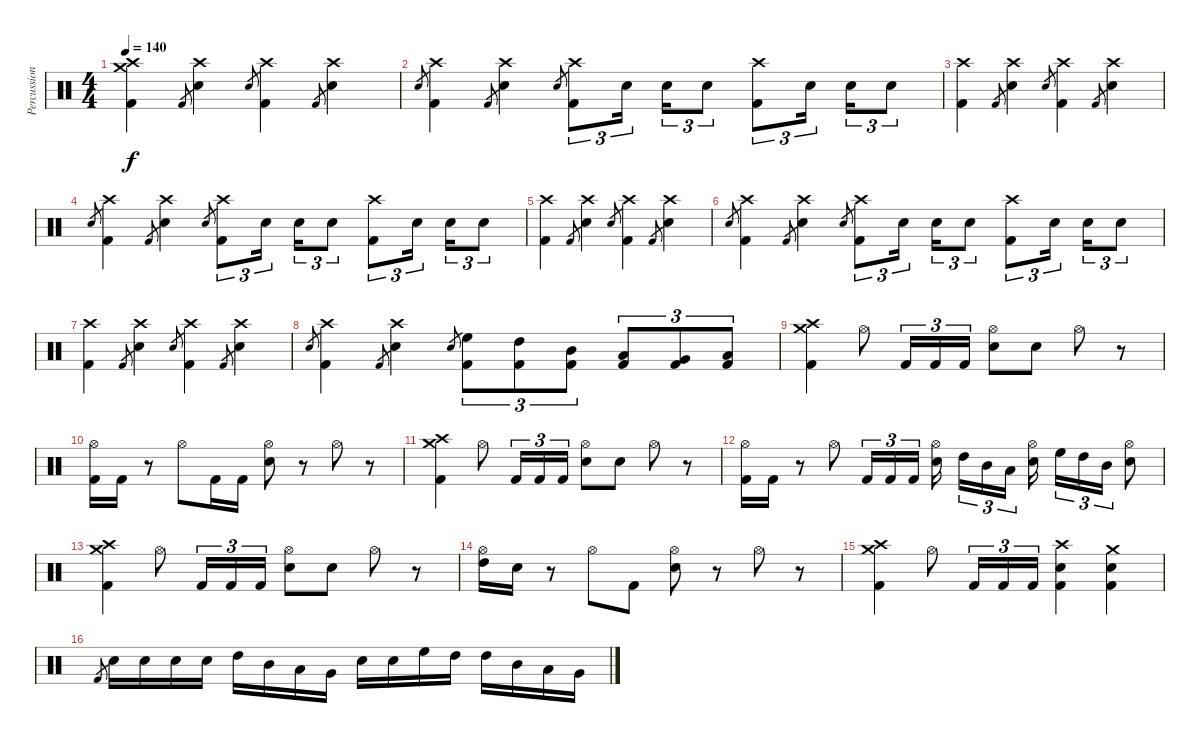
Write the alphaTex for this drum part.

\track ("Percussion" "Percussion") {instrument percussion}
\staff {score}
\articulation defaults
\ts (4 4)
\tempo 140
\clef neutral
\ks c
("Crash medium (hit)" "Crash high (hit)" "Kick (hit) 2").4{dy f} "Kick (hit) 2".8{gr} ("Crash high (hit)" "Electric Snare (hit)").4 "Electric Snare (hit)".8{gr} ("Crash high (hit)" "Kick (hit) 2").4 "Kick (hit) 2".8{gr} ("Crash high (hit)" "Electric Snare (hit)").4 |
"Electric Snare (hit)".8{gr} ("Crash high (hit)" "Kick (hit) 2").4 "Kick (hit) 2".8{gr} ("Crash high (hit)" "Electric Snare (hit)").4 "Electric Snare (hit)".8{gr} ("Crash high (hit)" "Kick (hit) 2").8{tu (3 2)} "Electric Snare (hit)".16{tu (3 2) beam splitsecondary} "Electric Snare (hit)".16{tu (3 2)} "Electric Snare (hit)".8{tu (3 2)} ("Crash high (hit)" "Kick (hit) 2").8{tu (3 2)} "Electric Snare (hit)".16{tu (3 2) beam splitsecondary} "Electric Snare (hit)".16{tu (3 2)} "Electric Snare (hit)".8{tu (3 2)} |
("Crash high (hit)" "Kick (hit) 2").4 "Kick (hit) 2".8{gr} ("Crash high (hit)" "Electric Snare (hit)").4 "Electric Snare (hit)".8{gr} ("Crash high (hit)" "Kick (hit) 2").4 "Kick (hit) 2".8{gr} ("Crash high (hit)" "Electric Snare (hit)").4 |
"Electric Snare (hit)".8{gr} ("Crash high (hit)" "Kick (hit) 2").4 "Kick (hit) 2".8{gr} ("Crash high (hit)" "Electric Snare (hit)").4 "Electric Snare (hit)".8{gr} ("Crash high (hit)" "Kick (hit) 2").8{tu (3 2)} "Electric Snare (hit)".16{tu (3 2) beam splitsecondary} "Electric Snare (hit)".16{tu (3 2)} "Electric Snare (hit)".8{tu (3 2)} ("Crash high (hit)" "Kick (hit) 2").8{tu (3 2)} "Electric Snare (hit)".16{tu (3 2) beam splitsecondary} "Electric Snare (hit)".16{tu (3 2)} "Electric Snare (hit)".8{tu (3 2)} |
("Crash high (hit)" "Kick (hit) 2").4 "Kick (hit) 2".8{gr} ("Crash high (hit)" "Electric Snare (hit)").4 "Electric Snare (hit)".8{gr} ("Crash high (hit)" "Kick (hit) 2").4 "Kick (hit) 2".8{gr} ("Crash high (hit)" "Electric Snare (hit)").4 |
"Electric Snare (hit)".8{gr} ("Crash high (hit)" "Kick (hit) 2").4 "Kick (hit) 2".8{gr} ("Crash high (hit)" "Electric Snare (hit)").4 "Electric Snare (hit)".8{gr} ("Crash high (hit)" "Kick (hit) 2").8{tu (3 2)} "Electric Snare (hit)".16{tu (3 2) beam splitsecondary} "Electric Snare (hit)".16{tu (3 2)} "Electric Snare (hit)".8{tu (3 2)} ("Crash high (hit)" "Kick (hit) 2").8{tu (3 2)} "Electric Snare (hit)".16{tu (3 2) beam splitsecondary} "Electric Snare (hit)".16{tu (3 2)} "Electric Snare (hit)".8{tu (3 2)} |
("Crash high (hit)" "Kick (hit) 2").4 "Kick (hit) 2".8{gr} ("Crash high (hit)" "Electric Snare (hit)").4 "Electric Snare (hit)".8{gr} ("Crash high (hit)" "Kick (hit) 2").4 "Kick (hit) 2".8{gr} ("Crash high (hit)" "Electric Snare (hit)").4 |
"Electric Snare (hit)".8{gr} ("Crash high (hit)" "Kick (hit) 2").4 "Kick (hit) 2".8{gr} ("Crash high (hit)" "Electric Snare (hit)").4 "Electric Snare (hit)".8{gr} ("High Floor Tom (hit)" "Kick (hit) 2").8{tu (3 2)} ("High Tom (hit)" "Kick (hit) 2").8{tu (3 2)} ("Mid Tom (hit)" "Kick (hit) 2").8{tu (3 2)} ("Low Tom (hit)" "Kick (hit) 2").8{tu (3 2)} ("Very Low Tom (hit)" "Kick (hit) 2").8{tu (3 2)} ("Low Floor Tom (hit)" "Kick (hit) 2").8{tu (3 2)} |
("Crash medium (hit)" "Crash high (hit)" "Kick (hit) 2").4 "Hi-Hat (open)".8 "Kick (hit) 2".16{tu (3 2)} "Kick (hit) 2".16{tu (3 2)} "Kick (hit) 2".16{tu (3 2)} ("Hi-Hat (open)" "Electric Snare (hit)").8 "Electric Snare (hit)".8 "Hi-Hat (open)".8 r.8 |
("Hi-Hat (open)" "Kick (hit) 2").16 "Kick (hit) 2".16 r.8 "Hi-Hat (open)".8 "Kick (hit) 2".16 "Kick (hit) 2".16 ("Hi-Hat (open)" "Electric Snare (hit)").8 r.8 "Hi-Hat (open)".8 r.8 |
("Crash medium (hit)" "Crash high (hit)" "Kick (hit) 2").4 "Hi-Hat (open)".8 "Kick (hit) 2".16{tu (3 2)} "Kick (hit) 2".16{tu (3 2)} "Kick (hit) 2".16{tu (3 2)} ("Hi-Hat (open)" "Electric Snare (hit)").8 "Electric Snare (hit)".8 "Hi-Hat (open)".8 r.8 |
("Hi-Hat (open)" "Kick (hit) 2").16 "Kick (hit) 2".16 r.8 "Hi-Hat (open)".8 "Kick (hit) 2".16{tu (3 2)} "Kick (hit) 2".16{tu (3 2)} "Kick (hit) 2".16{tu (3 2)} ("Hi-Hat (open)" "Electric Snare (hit)").16{beam splitsecondary} "High Tom (hit)".16{tu (3 2)} "Mid Tom (hit)".16{tu (3 2)} "Low Tom (hit)".16{tu (3 2) beam splitsecondary} ("Hi-Hat (open)" "Electric Snare (hit)").16 "High Floor Tom (hit)".16{tu (3 2)} "High Tom (hit)".16{tu (3 2)} "Mid Tom (hit)".16{tu (3 2)} ("Hi-Hat (open)" "Electric Snare (hit)").8 |
("Crash medium (hit)" "Crash high (hit)" "Kick (hit) 2").4 "Hi-Hat (open)".8 "Kick (hit) 2".16{tu (3 2)} "Kick (hit) 2".16{tu (3 2)} "Kick (hit) 2".16{tu (3 2)} ("Hi-Hat (open)" "Electric Snare (hit)").8 "Electric Snare (hit)".8 "Hi-Hat (open)".8 r.8 |
("Hi-Hat (open)" "High Tom (hit)").16 "Electric Snare (hit)".16 r.8 "Hi-Hat (open)".8 "Kick (hit) 2".8 ("Hi-Hat (open)" "Electric Snare (hit)").8 r.8 "Hi-Hat (open)".8 r.8 |
("Crash medium (hit)" "Crash high (hit)" "Kick (hit) 2").4 "Hi-Hat (open)".8 "Kick (hit) 2".16{tu (3 2)} "Kick (hit) 2".16{tu (3 2)} "Kick (hit) 2".16{tu (3 2)} ("Crash high (hit)" "Electric Snare (hit)" "Kick (hit) 2").4 ("Crash medium (hit)" "Electric Snare (hit)" "Kick (hit) 2").4 |
"Kick (hit) 2".8{gr} "Electric Snare (hit)".16 "Electric Snare (hit)".16 "Electric Snare (hit)".16 "Electric Snare (hit)".16 "High Tom (hit)".16 "Mid Tom (hit)".16 "Low Tom (hit)".16 "Very Low Tom (hit)".16 "Electric Snare (hit)".16 "Electric Snare (hit)".16 "High Floor Tom (hit)".16 "High Tom (hit)".16 "High Tom (hit)".16 "Mid Tom (hit)".16 "Low Tom (hit)".16 "Very Low Tom (hit)".16
